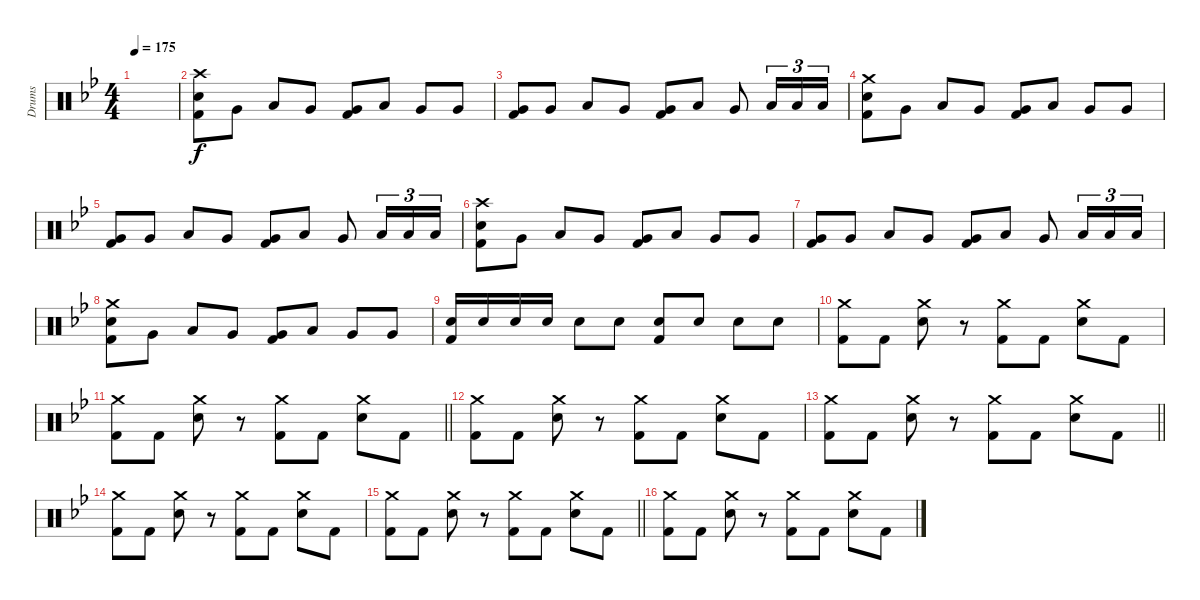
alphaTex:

\track ("Drums" "Drums") {instrument percussion}
\staff {score}
\articulation defaults
\ts (4 4)
\tempo 175
\clef neutral
\ks bb
|
("Crash high (hit)" "Electric Snare (hit)" "Kick (hit) 2").8 "Very Low Tom (hit)".8 "Low Tom (hit)".8 "Very Low Tom (hit)".8 ("Very Low Tom (hit)" "Kick (hit) 2").8 "Low Tom (hit)".8 "Very Low Tom (hit)".8 "Very Low Tom (hit)".8 |
("Very Low Tom (hit)" "Kick (hit) 2").8 "Very Low Tom (hit)".8 "Low Tom (hit)".8 "Very Low Tom (hit)".8 ("Very Low Tom (hit)" "Kick (hit) 2").8 "Low Tom (hit)".8 "Very Low Tom (hit)".8 "Low Floor Tom (hit)".16{tu (3 2)} "Low Floor Tom (hit)".16{tu (3 2)} "Low Floor Tom (hit)".16{tu (3 2)} |
("Crash medium (hit)" "Electric Snare (hit)" "Kick (hit) 2").8 "Very Low Tom (hit)".8 "Low Tom (hit)".8 "Very Low Tom (hit)".8 ("Very Low Tom (hit)" "Kick (hit) 2").8 "Low Tom (hit)".8 "Very Low Tom (hit)".8 "Very Low Tom (hit)".8 |
("Very Low Tom (hit)" "Kick (hit) 2").8 "Very Low Tom (hit)".8 "Low Tom (hit)".8 "Very Low Tom (hit)".8 ("Very Low Tom (hit)" "Kick (hit) 2").8 "Low Tom (hit)".8 "Very Low Tom (hit)".8 "Low Floor Tom (hit)".16{tu (3 2)} "Low Floor Tom (hit)".16{tu (3 2)} "Low Floor Tom (hit)".16{tu (3 2)} |
("Crash high (hit)" "Electric Snare (hit)" "Kick (hit) 2").8 "Very Low Tom (hit)".8 "Low Tom (hit)".8 "Very Low Tom (hit)".8 ("Very Low Tom (hit)" "Kick (hit) 2").8 "Low Tom (hit)".8 "Very Low Tom (hit)".8 "Very Low Tom (hit)".8 |
("Very Low Tom (hit)" "Kick (hit) 2").8 "Very Low Tom (hit)".8 "Low Tom (hit)".8 "Very Low Tom (hit)".8 ("Very Low Tom (hit)" "Kick (hit) 2").8 "Low Tom (hit)".8 "Very Low Tom (hit)".8 "Low Floor Tom (hit)".16{tu (3 2)} "Low Floor Tom (hit)".16{tu (3 2)} "Low Floor Tom (hit)".16{tu (3 2)} |
("Crash medium (hit)" "Electric Snare (hit)" "Kick (hit) 2").8 "Very Low Tom (hit)".8 "Low Tom (hit)".8 "Very Low Tom (hit)".8 ("Very Low Tom (hit)" "Kick (hit) 2").8 "Low Tom (hit)".8 "Very Low Tom (hit)".8 "Very Low Tom (hit)".8 |
("Electric Snare (hit)" "Kick (hit) 2").16 "Electric Snare (hit)".16 "Electric Snare (hit)".16 "Electric Snare (hit)".16 "Electric Snare (hit)".8 "Electric Snare (hit)".8 ("Electric Snare (hit)" "Kick (hit) 2").8 "Electric Snare (hit)".8 "Electric Snare (hit)".8 "Electric Snare (hit)".8 |
("Crash medium (hit)" "Kick (hit) 2").8 "Kick (hit) 2".8 ("Crash medium (hit)" "Electric Snare (hit)").8 r.8 ("Crash medium (hit)" "Kick (hit) 2").8 "Kick (hit) 2".8 ("Crash medium (hit)" "Electric Snare (hit)").8 "Kick (hit) 2".8 |
\barLineRight lightlight
("Crash medium (hit)" "Kick (hit) 2").8 "Kick (hit) 2".8 ("Crash medium (hit)" "Electric Snare (hit)").8 r.8 ("Crash medium (hit)" "Kick (hit) 2").8 "Kick (hit) 2".8 ("Crash medium (hit)" "Electric Snare (hit)").8 "Kick (hit) 2".8 |
("Crash medium (hit)" "Kick (hit) 2").8 "Kick (hit) 2".8 ("Crash medium (hit)" "Electric Snare (hit)").8 r.8 ("Crash medium (hit)" "Kick (hit) 2").8 "Kick (hit) 2".8 ("Crash medium (hit)" "Electric Snare (hit)").8 "Kick (hit) 2".8 |
\barLineRight lightlight
("Crash medium (hit)" "Kick (hit) 2").8 "Kick (hit) 2".8 ("Crash medium (hit)" "Electric Snare (hit)").8 r.8 ("Crash medium (hit)" "Kick (hit) 2").8 "Kick (hit) 2".8 ("Crash medium (hit)" "Electric Snare (hit)").8 "Kick (hit) 2".8 |
("Crash medium (hit)" "Kick (hit) 2").8 "Kick (hit) 2".8 ("Crash medium (hit)" "Electric Snare (hit)").8 r.8 ("Crash medium (hit)" "Kick (hit) 2").8 "Kick (hit) 2".8 ("Crash medium (hit)" "Electric Snare (hit)").8 "Kick (hit) 2".8 |
\barLineRight lightlight
("Crash medium (hit)" "Kick (hit) 2").8 "Kick (hit) 2".8 ("Crash medium (hit)" "Electric Snare (hit)").8 r.8 ("Crash medium (hit)" "Kick (hit) 2").8 "Kick (hit) 2".8 ("Crash medium (hit)" "Electric Snare (hit)").8 "Kick (hit) 2".8 |
("Crash medium (hit)" "Kick (hit) 2").8 "Kick (hit) 2".8 ("Crash medium (hit)" "Electric Snare (hit)").8 r.8 ("Crash medium (hit)" "Kick (hit) 2").8 "Kick (hit) 2".8 ("Crash medium (hit)" "Electric Snare (hit)").8 "Kick (hit) 2".8
